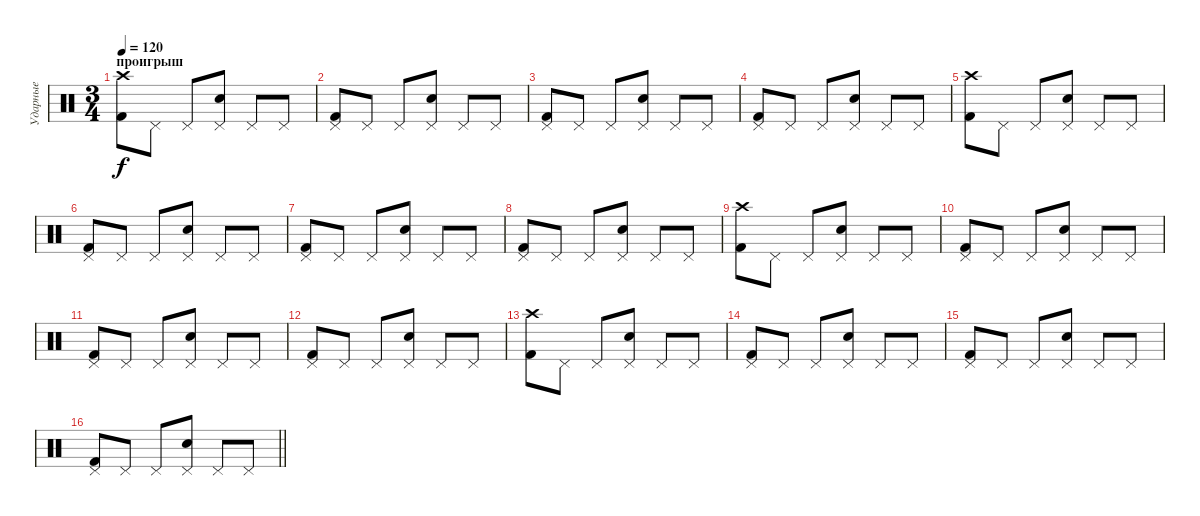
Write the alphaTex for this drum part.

\track ("Ударные" "Ударные") {instrument percussion}
\staff {score}
\articulation defaults
\ts (3 4)
\section ("" "проигрыш")
\tempo 120
\clef neutral
\ks c
("Crash high (hit)" "Kick (hit) 2").8{dy f} "Pedal Hi-Hat (hit)".8 "Pedal Hi-Hat (hit)".8 ("Pedal Hi-Hat (hit)" "Snare (hit) 2").8 "Pedal Hi-Hat (hit)".8 "Pedal Hi-Hat (hit)".8 |
("Pedal Hi-Hat (hit)" "Kick (hit) 2").8 "Pedal Hi-Hat (hit)".8 "Pedal Hi-Hat (hit)".8 ("Pedal Hi-Hat (hit)" "Snare (hit) 2").8 "Pedal Hi-Hat (hit)".8 "Pedal Hi-Hat (hit)".8 |
("Pedal Hi-Hat (hit)" "Kick (hit) 2").8 "Pedal Hi-Hat (hit)".8 "Pedal Hi-Hat (hit)".8 ("Pedal Hi-Hat (hit)" "Snare (hit) 2").8 "Pedal Hi-Hat (hit)".8 "Pedal Hi-Hat (hit)".8 |
("Pedal Hi-Hat (hit)" "Kick (hit) 2").8 "Pedal Hi-Hat (hit)".8 "Pedal Hi-Hat (hit)".8 ("Pedal Hi-Hat (hit)" "Snare (hit) 2").8 "Pedal Hi-Hat (hit)".8 "Pedal Hi-Hat (hit)".8 |
("Crash high (hit)" "Kick (hit) 2").8 "Pedal Hi-Hat (hit)".8 "Pedal Hi-Hat (hit)".8 ("Pedal Hi-Hat (hit)" "Snare (hit) 2").8 "Pedal Hi-Hat (hit)".8 "Pedal Hi-Hat (hit)".8 |
("Pedal Hi-Hat (hit)" "Kick (hit) 2").8 "Pedal Hi-Hat (hit)".8 "Pedal Hi-Hat (hit)".8 ("Pedal Hi-Hat (hit)" "Snare (hit) 2").8 "Pedal Hi-Hat (hit)".8 "Pedal Hi-Hat (hit)".8 |
("Pedal Hi-Hat (hit)" "Kick (hit) 2").8 "Pedal Hi-Hat (hit)".8 "Pedal Hi-Hat (hit)".8 ("Pedal Hi-Hat (hit)" "Snare (hit) 2").8 "Pedal Hi-Hat (hit)".8 "Pedal Hi-Hat (hit)".8 |
("Pedal Hi-Hat (hit)" "Kick (hit) 2").8 "Pedal Hi-Hat (hit)".8 "Pedal Hi-Hat (hit)".8 ("Pedal Hi-Hat (hit)" "Snare (hit) 2").8 "Pedal Hi-Hat (hit)".8 "Pedal Hi-Hat (hit)".8 |
("Crash high (hit)" "Kick (hit) 2").8 "Pedal Hi-Hat (hit)".8 "Pedal Hi-Hat (hit)".8 ("Pedal Hi-Hat (hit)" "Snare (hit) 2").8 "Pedal Hi-Hat (hit)".8 "Pedal Hi-Hat (hit)".8 |
("Pedal Hi-Hat (hit)" "Kick (hit) 2").8 "Pedal Hi-Hat (hit)".8 "Pedal Hi-Hat (hit)".8 ("Pedal Hi-Hat (hit)" "Snare (hit) 2").8 "Pedal Hi-Hat (hit)".8 "Pedal Hi-Hat (hit)".8 |
("Pedal Hi-Hat (hit)" "Kick (hit) 2").8 "Pedal Hi-Hat (hit)".8 "Pedal Hi-Hat (hit)".8 ("Pedal Hi-Hat (hit)" "Snare (hit) 2").8 "Pedal Hi-Hat (hit)".8 "Pedal Hi-Hat (hit)".8 |
("Pedal Hi-Hat (hit)" "Kick (hit) 2").8 "Pedal Hi-Hat (hit)".8 "Pedal Hi-Hat (hit)".8 ("Pedal Hi-Hat (hit)" "Snare (hit) 2").8 "Pedal Hi-Hat (hit)".8 "Pedal Hi-Hat (hit)".8 |
("Crash high (hit)" "Kick (hit) 2").8 "Pedal Hi-Hat (hit)".8 "Pedal Hi-Hat (hit)".8 ("Pedal Hi-Hat (hit)" "Snare (hit) 2").8 "Pedal Hi-Hat (hit)".8 "Pedal Hi-Hat (hit)".8 |
("Pedal Hi-Hat (hit)" "Kick (hit) 2").8 "Pedal Hi-Hat (hit)".8 "Pedal Hi-Hat (hit)".8 ("Pedal Hi-Hat (hit)" "Snare (hit) 2").8 "Pedal Hi-Hat (hit)".8 "Pedal Hi-Hat (hit)".8 |
("Pedal Hi-Hat (hit)" "Kick (hit) 2").8 "Pedal Hi-Hat (hit)".8 "Pedal Hi-Hat (hit)".8 ("Pedal Hi-Hat (hit)" "Snare (hit) 2").8 "Pedal Hi-Hat (hit)".8 "Pedal Hi-Hat (hit)".8 |
\barLineRight lightlight
("Pedal Hi-Hat (hit)" "Kick (hit) 2").8 "Pedal Hi-Hat (hit)".8 "Pedal Hi-Hat (hit)".8 ("Pedal Hi-Hat (hit)" "Snare (hit) 2").8 "Pedal Hi-Hat (hit)".8 "Pedal Hi-Hat (hit)".8
